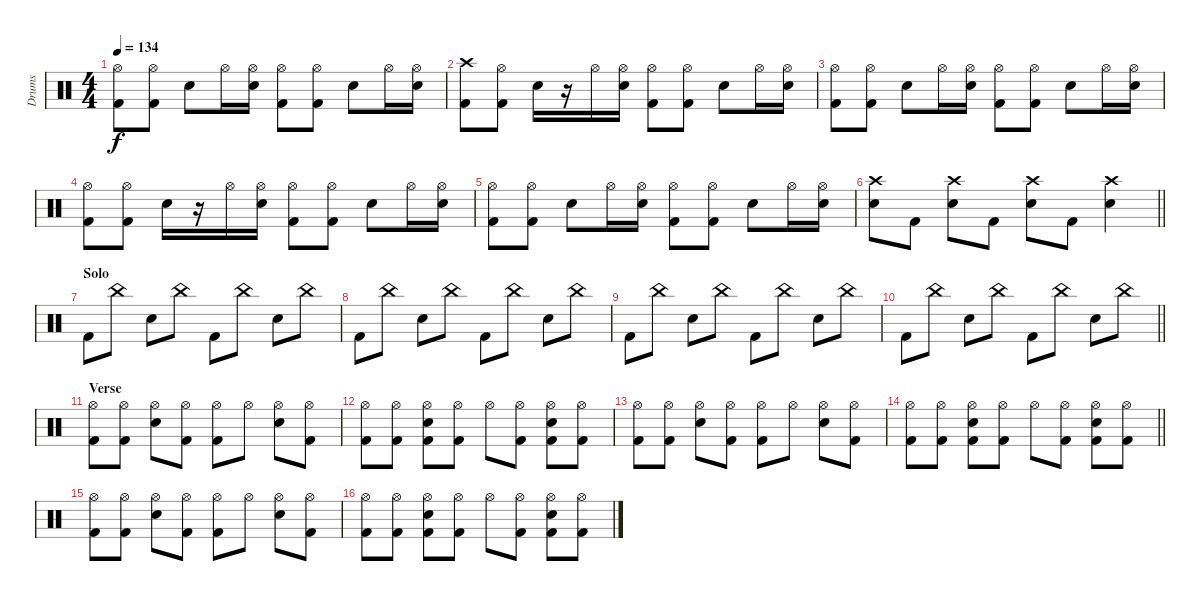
\track ("Drums" "Drums") {instrument percussion}
\staff {score}
\articulation defaults
\ts (4 4)
\tempo 134
\clef neutral
\ks c
("Hi-Hat (open)" "Kick (hit) 2").8{dy f} ("Hi-Hat (open)" "Kick (hit) 2").8 "Electric Snare (hit)".8 "Hi-Hat (open)".16 ("Hi-Hat (open)" "Electric Snare (hit)").16 ("Hi-Hat (open)" "Kick (hit) 2").8 ("Hi-Hat (open)" "Kick (hit) 2").8 "Electric Snare (hit)".8 "Hi-Hat (open)".16 ("Hi-Hat (open)" "Electric Snare (hit)").16 |
("Crash high (hit)" "Kick (hit) 2").8 ("Hi-Hat (open)" "Kick (hit) 2").8 "Electric Snare (hit)".16 r.16 "Hi-Hat (open)".16 ("Hi-Hat (open)" "Electric Snare (hit)").16 ("Hi-Hat (open)" "Kick (hit) 2").8 ("Hi-Hat (open)" "Kick (hit) 2").8 "Electric Snare (hit)".8 "Hi-Hat (open)".16 ("Hi-Hat (open)" "Electric Snare (hit)").16 |
("Hi-Hat (open)" "Kick (hit) 2").8 ("Hi-Hat (open)" "Kick (hit) 2").8 "Electric Snare (hit)".8 "Hi-Hat (open)".16 ("Hi-Hat (open)" "Electric Snare (hit)").16 ("Hi-Hat (open)" "Kick (hit) 2").8 ("Hi-Hat (open)" "Kick (hit) 2").8 "Electric Snare (hit)".8 "Hi-Hat (open)".16 ("Hi-Hat (open)" "Electric Snare (hit)").16 |
("Hi-Hat (open)" "Kick (hit) 2").8 ("Hi-Hat (open)" "Kick (hit) 2").8 "Electric Snare (hit)".16 r.16 "Hi-Hat (open)".16 ("Hi-Hat (open)" "Electric Snare (hit)").16 ("Hi-Hat (open)" "Kick (hit) 2").8 ("Hi-Hat (open)" "Kick (hit) 2").8 "Electric Snare (hit)".8 "Hi-Hat (open)".16 ("Hi-Hat (open)" "Electric Snare (hit)").16 |
("Hi-Hat (open)" "Kick (hit) 2").8 ("Hi-Hat (open)" "Kick (hit) 2").8 "Electric Snare (hit)".8 "Hi-Hat (open)".16 ("Hi-Hat (open)" "Electric Snare (hit)").16 ("Hi-Hat (open)" "Kick (hit) 2").8 ("Hi-Hat (open)" "Kick (hit) 2").8 "Electric Snare (hit)".8 "Hi-Hat (open)".16 ("Hi-Hat (open)" "Electric Snare (hit)").16 |
\barLineRight lightlight
("Crash high (hit)" "Electric Snare (hit)").8 "Kick (hit) 2".8 ("Crash high (hit)" "Electric Snare (hit)").8 "Kick (hit) 2".8 ("Crash high (hit)" "Electric Snare (hit)").8 "Kick (hit) 2".8 ("Crash high (hit)" "Electric Snare (hit)").4 |
\section ("" "Solo")
"Kick (hit) 2".8 "China (hit)".8 "Electric Snare (hit)".8 "China (hit)".8 "Kick (hit) 2".8 "China (hit)".8 "Electric Snare (hit)".8 "China (hit)".8 |
"Kick (hit) 2".8 "China (hit)".8 "Electric Snare (hit)".8 "China (hit)".8 "Kick (hit) 2".8 "China (hit)".8 "Electric Snare (hit)".8 "China (hit)".8 |
"Kick (hit) 2".8 "China (hit)".8 "Electric Snare (hit)".8 "China (hit)".8 "Kick (hit) 2".8 "China (hit)".8 "Electric Snare (hit)".8 "China (hit)".8 |
\barLineRight lightlight "Kick (hit) 2".8 "China (hit)".8 "Electric Snare (hit)".8 "China (hit)".8 "Kick (hit) 2".8 "China (hit)".8 "Electric Snare (hit)".8 "China (hit)".8
|
\section ("" "Verse")
("Hi-Hat (open)" "Kick (hit) 2").8 ("Hi-Hat (open)" "Kick (hit) 2").8 ("Hi-Hat (open)" "Electric Snare (hit)").8 ("Hi-Hat (open)" "Kick (hit) 2").8 ("Hi-Hat (open)" "Kick (hit) 2").8 "Hi-Hat (open)".8 ("Hi-Hat (open)" "Electric Snare (hit)").8 ("Hi-Hat (open)" "Kick (hit) 2").8 |
("Hi-Hat (open)" "Kick (hit) 2").8 ("Hi-Hat (open)" "Kick (hit) 2").8 ("Hi-Hat (open)" "Electric Snare (hit)" "Kick (hit) 2").8 ("Hi-Hat (open)" "Kick (hit) 2").8 "Hi-Hat (open)".8 ("Hi-Hat (open)" "Kick (hit) 2").8 ("Hi-Hat (open)" "Electric Snare (hit)" "Kick (hit) 2").8 ("Hi-Hat (open)" "Kick (hit) 2").8 |
("Hi-Hat (open)" "Kick (hit) 2").8 ("Hi-Hat (open)" "Kick (hit) 2").8 ("Hi-Hat (open)" "Electric Snare (hit)").8 ("Hi-Hat (open)" "Kick (hit) 2").8 ("Hi-Hat (open)" "Kick (hit) 2").8 "Hi-Hat (open)".8 ("Hi-Hat (open)" "Electric Snare (hit)").8 ("Hi-Hat (open)" "Kick (hit) 2").8 |
\barLineRight lightlight
("Hi-Hat (open)" "Kick (hit) 2").8 ("Hi-Hat (open)" "Kick (hit) 2").8 ("Hi-Hat (open)" "Electric Snare (hit)" "Kick (hit) 2").8 ("Hi-Hat (open)" "Kick (hit) 2").8 "Hi-Hat (open)".8 ("Hi-Hat (open)" "Kick (hit) 2").8 ("Hi-Hat (open)" "Electric Snare (hit)" "Kick (hit) 2").8 ("Hi-Hat (open)" "Kick (hit) 2").8 |
("Hi-Hat (open)" "Kick (hit) 2").8 ("Hi-Hat (open)" "Kick (hit) 2").8 ("Hi-Hat (open)" "Electric Snare (hit)").8 ("Hi-Hat (open)" "Kick (hit) 2").8 ("Hi-Hat (open)" "Kick (hit) 2").8 "Hi-Hat (open)".8 ("Hi-Hat (open)" "Electric Snare (hit)").8 ("Hi-Hat (open)" "Kick (hit) 2").8 |
("Hi-Hat (open)" "Kick (hit) 2").8 ("Hi-Hat (open)" "Kick (hit) 2").8 ("Hi-Hat (open)" "Electric Snare (hit)" "Kick (hit) 2").8 ("Hi-Hat (open)" "Kick (hit) 2").8 "Hi-Hat (open)".8 ("Hi-Hat (open)" "Kick (hit) 2").8 ("Hi-Hat (open)" "Electric Snare (hit)" "Kick (hit) 2").8 ("Hi-Hat (open)" "Kick (hit) 2").8
